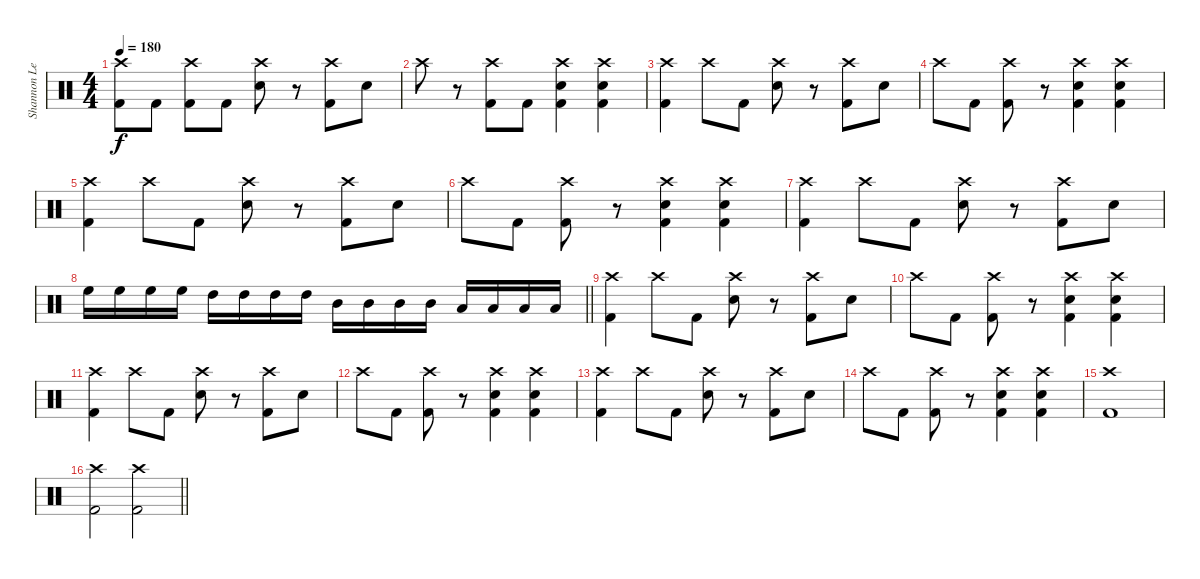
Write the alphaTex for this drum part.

\track ("Shannon Leto" "Shannon Le") {instrument percussion}
\staff {score}
\articulation defaults
\ts (4 4)
\tempo 180
\clef neutral
\ks c
("Crash high (hit)" "Kick (hit) 2").8{dy f} "Kick (hit) 2".8 ("Crash high (hit)" "Kick (hit) 2").8 "Kick (hit) 2".8 ("Crash high (hit)" "Snare (hit) 2").8 r.8 ("Crash high (hit)" "Kick (hit) 2").8 "Snare (hit) 2".8 |
"Crash high (hit)".8 r.8 ("Crash high (hit)" "Kick (hit) 2").8 "Kick (hit) 2".8 ("Crash high (hit)" "Snare (hit) 2" "Kick (hit) 2").4 ("Crash high (hit)" "Snare (hit) 2" "Kick (hit) 2").4 |
("Crash high (hit)" "Kick (hit) 2").4 "Crash high (hit)".8 "Kick (hit) 2".8 ("Crash high (hit)" "Snare (hit) 2").8 r.8 ("Crash high (hit)" "Kick (hit) 2").8 "Snare (hit) 2".8 |
"Crash high (hit)".8 "Kick (hit) 2".8 ("Crash high (hit)" "Kick (hit) 2").8 r.8 ("Crash high (hit)" "Snare (hit) 2" "Kick (hit) 2").4 ("Crash high (hit)" "Snare (hit) 2" "Kick (hit) 2").4 |
("Crash high (hit)" "Kick (hit) 2").4 "Crash high (hit)".8 "Kick (hit) 2".8 ("Crash high (hit)" "Snare (hit) 2").8 r.8 ("Crash high (hit)" "Kick (hit) 2").8 "Snare (hit) 2".8 |
"Crash high (hit)".8 "Kick (hit) 2".8 ("Crash high (hit)" "Kick (hit) 2").8 r.8 ("Crash high (hit)" "Snare (hit) 2" "Kick (hit) 2").4 ("Crash high (hit)" "Snare (hit) 2" "Kick (hit) 2").4 |
("Crash high (hit)" "Kick (hit) 2").4 "Crash high (hit)".8 "Kick (hit) 2".8 ("Crash high (hit)" "Snare (hit) 2").8 r.8 ("Crash high (hit)" "Kick (hit) 2").8 "Snare (hit) 2".8 |
\barLineRight lightlight "High Floor Tom (hit)".16 "High Floor Tom (hit)".16 "High Floor Tom (hit)".16 "High Floor Tom (hit)".16 "High Tom (hit)".16 "High Tom (hit)".16 "High Tom (hit)".16 "High Tom (hit)".16 "Mid Tom (hit)".16 "Mid Tom (hit)".16 "Mid Tom (hit)".16 "Mid Tom (hit)".16 "Low Tom (hit)".16 "Low Tom (hit)".16 "Low Tom (hit)".16 "Low Tom (hit)".16
|
("Crash high (hit)" "Kick (hit) 2").4 "Crash high (hit)".8 "Kick (hit) 2".8 ("Crash high (hit)" "Snare (hit) 2").8 r.8 ("Crash high (hit)" "Kick (hit) 2").8 "Snare (hit) 2".8 |
"Crash high (hit)".8 "Kick (hit) 2".8 ("Crash high (hit)" "Kick (hit) 2").8 r.8 ("Crash high (hit)" "Snare (hit) 2" "Kick (hit) 2").4 ("Crash high (hit)" "Snare (hit) 2" "Kick (hit) 2").4 |
("Crash high (hit)" "Kick (hit) 2").4 "Crash high (hit)".8 "Kick (hit) 2".8 ("Crash high (hit)" "Snare (hit) 2").8 r.8 ("Crash high (hit)" "Kick (hit) 2").8 "Snare (hit) 2".8 |
"Crash high (hit)".8 "Kick (hit) 2".8 ("Crash high (hit)" "Kick (hit) 2").8 r.8 ("Crash high (hit)" "Snare (hit) 2" "Kick (hit) 2").4 ("Crash high (hit)" "Snare (hit) 2" "Kick (hit) 2").4 |
("Crash high (hit)" "Kick (hit) 2").4 "Crash high (hit)".8 "Kick (hit) 2".8 ("Crash high (hit)" "Snare (hit) 2").8 r.8 ("Crash high (hit)" "Kick (hit) 2").8 "Snare (hit) 2".8 |
"Crash high (hit)".8 "Kick (hit) 2".8 ("Crash high (hit)" "Kick (hit) 2").8 r.8 ("Crash high (hit)" "Snare (hit) 2" "Kick (hit) 2").4 ("Crash high (hit)" "Snare (hit) 2" "Kick (hit) 2").4 |
("Crash high (hit)" "Kick (hit) 2").1 |
\barLineRight lightlight
("Crash high (hit)" "Kick (hit) 2").2 ("Crash high (hit)" "Kick (hit) 2").2
